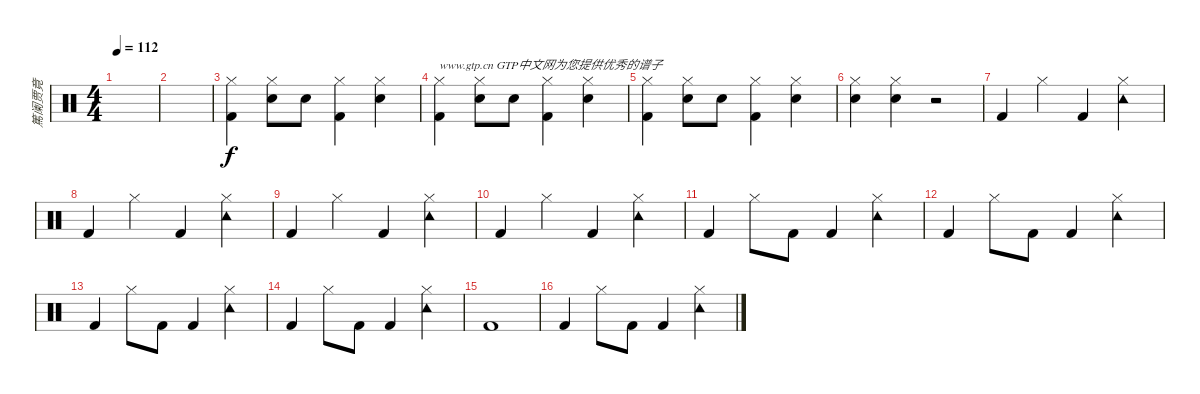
\track ("篤阑贾竟" "篤阑贾竟") {instrument percussion}
\staff {score}
\articulation defaults
\ts (4 4)
\tempo 112
\clef neutral
\ks c
|
|
("Hi-Hat (closed)" "Kick (hit) 2").4{volume 8} ("Hi-Hat (closed)" "Electric Snare (hit)").8{volume 9} "Electric Snare (hit)".8 ("Hi-Hat (closed)" "Kick (hit) 2").4 ("Hi-Hat (closed)" "Electric Snare (hit)").4 |
("Hi-Hat (closed)" "Kick (hit) 2").4{txt "www.gtp.cn GTP中文网为您提供优秀的谱子"} ("Hi-Hat (closed)" "Electric Snare (hit)").8{volume 10} "Electric Snare (hit)".8 ("Hi-Hat (closed)" "Kick (hit) 2").4 ("Hi-Hat (closed)" "Electric Snare (hit)").4{volume 11} |
("Hi-Hat (closed)" "Kick (hit) 2").4 ("Hi-Hat (closed)" "Electric Snare (hit)").8 "Electric Snare (hit)".8 ("Hi-Hat (closed)" "Kick (hit) 2").4 ("Hi-Hat (closed)" "Electric Snare (hit)").4{volume 13} |
("Hi-Hat (closed)" "Electric Snare (hit)").4{volume 15} ("Hi-Hat (closed)" "Electric Snare (hit)").4 r.2 |
"Kick (hit) 2".4 "Hi-Hat (closed)".4 "Kick (hit) 2".4 ("Hi-Hat (closed)" "Tambourine (hit)").4 |
"Kick (hit) 2".4 "Hi-Hat (closed)".4 "Kick (hit) 2".4 ("Hi-Hat (closed)" "Tambourine (hit)").4 |
"Kick (hit) 2".4 "Hi-Hat (closed)".4 "Kick (hit) 2".4 ("Hi-Hat (closed)" "Tambourine (hit)").4 |
"Kick (hit) 2".4 "Hi-Hat (closed)".4 "Kick (hit) 2".4 ("Hi-Hat (closed)" "Tambourine (hit)").4 |
"Kick (hit) 2".4 "Hi-Hat (closed)".8 "Kick (hit) 2".8 "Kick (hit) 2".4 ("Hi-Hat (closed)" "Tambourine (hit)").4 |
"Kick (hit) 2".4 "Hi-Hat (closed)".8 "Kick (hit) 2".8 "Kick (hit) 2".4 ("Hi-Hat (closed)" "Tambourine (hit)").4 |
"Kick (hit) 2".4 "Hi-Hat (closed)".8 "Kick (hit) 2".8 "Kick (hit) 2".4 ("Hi-Hat (closed)" "Tambourine (hit)").4 |
"Kick (hit) 2".4 "Hi-Hat (closed)".8 "Kick (hit) 2".8 "Kick (hit) 2".4 ("Hi-Hat (closed)" "Tambourine (hit)").4 |
"Kick (hit) 2".1 |
"Kick (hit) 2".4 "Hi-Hat (closed)".8 "Kick (hit) 2".8 "Kick (hit) 2".4 ("Hi-Hat (closed)" "Tambourine (hit)").4
